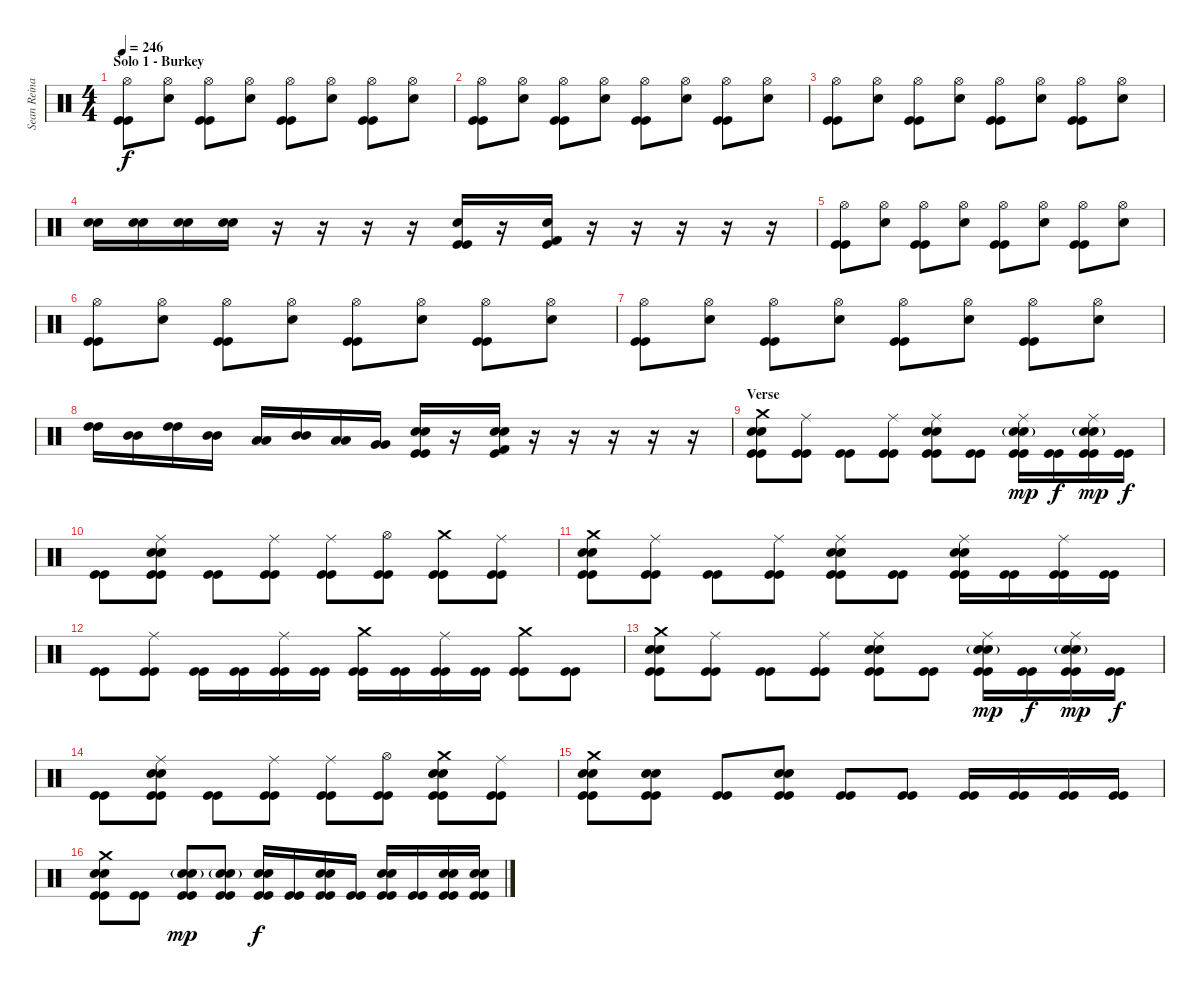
\track ("Sean Reinart" "Sean Reina") {instrument percussion}
\staff {score}
\articulation defaults
\ts (4 4)
\section ("" "Solo 1 - Burkey")
\tempo 246
\clef neutral
\ks c
("Hi-Hat (open)" "Kick (hit)" "Kick (hit)").8{dy f} ("Hi-Hat (open)" "Snare (hit) 2").8 ("Hi-Hat (open)" "Kick (hit)" "Kick (hit)").8 ("Hi-Hat (open)" "Snare (hit) 2").8 ("Hi-Hat (open)" "Kick (hit)" "Kick (hit)").8 ("Hi-Hat (open)" "Snare (hit) 2").8 ("Hi-Hat (open)" "Kick (hit)" "Kick (hit)").8 ("Hi-Hat (open)" "Snare (hit) 2").8 |
("Hi-Hat (open)" "Kick (hit)" "Kick (hit)").8 ("Hi-Hat (open)" "Snare (hit) 2").8 ("Hi-Hat (open)" "Kick (hit)" "Kick (hit)").8 ("Hi-Hat (open)" "Snare (hit) 2").8 ("Hi-Hat (open)" "Kick (hit)" "Kick (hit)").8 ("Hi-Hat (open)" "Snare (hit) 2").8 ("Hi-Hat (open)" "Kick (hit)" "Kick (hit)").8 ("Hi-Hat (open)" "Snare (hit) 2").8 |
("Hi-Hat (open)" "Kick (hit)" "Kick (hit)").8 ("Hi-Hat (open)" "Snare (hit) 2").8 ("Hi-Hat (open)" "Kick (hit)" "Kick (hit)").8 ("Hi-Hat (open)" "Snare (hit) 2").8 ("Hi-Hat (open)" "Kick (hit)" "Kick (hit)").8 ("Hi-Hat (open)" "Snare (hit) 2").8 ("Hi-Hat (open)" "Kick (hit)" "Kick (hit)").8 ("Hi-Hat (open)" "Snare (hit) 2").8 |
("Snare (hit) 2" "Electric Snare (hit)").16 ("Snare (hit) 2" "Electric Snare (hit)").16 ("Snare (hit) 2" "Electric Snare (hit)").16 ("Snare (hit) 2" "Electric Snare (hit)").16 r.16 r.16 r.16 r.16 ("Snare (hit) 2" "Kick (hit)" "Kick (hit)").16 r.16 ("Snare (hit) 2" "Kick (hit)" "Kick (hit) 2").16 r.16 r.16 r.16 r.16 r.16 |
("Hi-Hat (open)" "Kick (hit)" "Kick (hit)").8 ("Hi-Hat (open)" "Snare (hit) 2").8 ("Hi-Hat (open)" "Kick (hit)" "Kick (hit)").8 ("Hi-Hat (open)" "Snare (hit) 2").8 ("Hi-Hat (open)" "Kick (hit)" "Kick (hit)").8 ("Hi-Hat (open)" "Snare (hit) 2").8 ("Hi-Hat (open)" "Kick (hit)" "Kick (hit)").8 ("Hi-Hat (open)" "Snare (hit) 2").8 |
("Hi-Hat (open)" "Kick (hit)" "Kick (hit)").8 ("Hi-Hat (open)" "Snare (hit) 2").8 ("Hi-Hat (open)" "Kick (hit)" "Kick (hit)").8 ("Hi-Hat (open)" "Snare (hit) 2").8 ("Hi-Hat (open)" "Kick (hit)" "Kick (hit)").8 ("Hi-Hat (open)" "Snare (hit) 2").8 ("Hi-Hat (open)" "Kick (hit)" "Kick (hit)").8 ("Hi-Hat (open)" "Snare (hit) 2").8 |
("Hi-Hat (open)" "Kick (hit)" "Kick (hit)").8 ("Hi-Hat (open)" "Snare (hit) 2").8 ("Hi-Hat (open)" "Kick (hit)" "Kick (hit)").8 ("Hi-Hat (open)" "Snare (hit) 2").8 ("Hi-Hat (open)" "Kick (hit)" "Kick (hit)").8 ("Hi-Hat (open)" "Snare (hit) 2").8 ("Hi-Hat (open)" "Kick (hit)" "Kick (hit)").8 ("Hi-Hat (open)" "Snare (hit) 2").8 |
("High Tom (hit)" "High Tom (hit)").16 ("Mid Tom (hit)" "Mid Tom (hit)").16 ("High Tom (hit)" "High Tom (hit)").16 ("Mid Tom (hit)" "Mid Tom (hit)").16 ("Low Tom (hit)" "Low Tom (hit)").16 ("Mid Tom (hit)" "Mid Tom (hit)").16 ("Low Tom (hit)" "Low Tom (hit)").16 ("Very Low Tom (hit)" "Very Low Tom (hit)").16 ("Snare (hit) 2" "Electric Snare (hit)" "Kick (hit)" "Kick (hit)").16 r.16 ("Snare (hit) 2" "Electric Snare (hit)" "Kick (hit)" "Kick (hit) 2").16 r.16 r.16 r.16 r.16 r.16 |
\section ("" "Verse")
("Crash medium (hit)" "Snare (hit) 2" "Electric Snare (hit)" "Kick (hit)" "Kick (hit)").8 ("Ride (middle)" "Kick (hit)" "Kick (hit)").8 ("Kick (hit)" "Kick (hit)").8 ("Ride (middle)" "Kick (hit)" "Kick (hit)").8 ("Ride (middle)" "Snare (hit) 2" "Electric Snare (hit)" "Kick (hit)" "Kick (hit)").8 ("Kick (hit)" "Kick (hit)").8 ("Ride (middle)" "Snare (hit) 2"{g} "Electric Snare (hit)"{g} "Kick (hit)" "Kick (hit)").16{dy mp} ("Kick (hit)" "Kick (hit)").16{dy f} ("Ride (middle)" "Snare (hit) 2"{g} "Electric Snare (hit)"{g} "Kick (hit)" "Kick (hit)").16{dy mp} ("Kick (hit)" "Kick (hit)").16{dy f} |
("Kick (hit)" "Kick (hit)").8 ("Ride (middle)" "Electric Snare (hit)" "Snare (hit) 2" "Kick (hit)" "Kick (hit)").8 ("Kick (hit)" "Kick (hit)").8 ("Ride (middle)" "Kick (hit)" "Kick (hit)").8 ("Ride (middle)" "Kick (hit)" "Kick (hit)").8 ("Hi-Hat (open)" "Kick (hit)" "Kick (hit)").8 ("Crash medium (hit)" "Kick (hit)" "Kick (hit)").8 ("Ride (middle)" "Kick (hit)" "Kick (hit)").8 |
("Crash medium (hit)" "Snare (hit) 2" "Electric Snare (hit)" "Kick (hit)" "Kick (hit)").8 ("Ride (middle)" "Kick (hit)" "Kick (hit)").8 ("Kick (hit)" "Kick (hit)").8 ("Ride (middle)" "Kick (hit)" "Kick (hit)").8 ("Ride (middle)" "Snare (hit) 2" "Electric Snare (hit)" "Kick (hit)" "Kick (hit)").8 ("Kick (hit)" "Kick (hit)").8 ("Ride (middle)" "Snare (hit) 2" "Electric Snare (hit)" "Kick (hit)" "Kick (hit)").16 ("Kick (hit)" "Kick (hit)").16 ("Ride (middle)" "Kick (hit)" "Kick (hit)").16 ("Kick (hit)" "Kick (hit)").16 |
("Kick (hit)" "Kick (hit)").8 ("Ride (middle)" "Kick (hit)" "Kick (hit)").8 ("Kick (hit)" "Kick (hit)").16 ("Kick (hit)" "Kick (hit)").16 ("Ride (middle)" "Kick (hit)" "Kick (hit)").16 ("Kick (hit)" "Kick (hit)").16 ("Crash medium (hit)" "Kick (hit)" "Kick (hit)").16 ("Kick (hit)" "Kick (hit)").16 ("Ride (middle)" "Kick (hit)" "Kick (hit)").16 ("Kick (hit)" "Kick (hit)").16 ("Crash medium (hit)" "Kick (hit)" "Kick (hit)").8 ("Kick (hit)" "Kick (hit)").8 |
("Crash medium (hit)" "Snare (hit) 2" "Electric Snare (hit)" "Kick (hit)" "Kick (hit)").8 ("Ride (middle)" "Kick (hit)" "Kick (hit)").8 ("Kick (hit)" "Kick (hit)").8 ("Ride (middle)" "Kick (hit)" "Kick (hit)").8 ("Ride (middle)" "Snare (hit) 2" "Electric Snare (hit)" "Kick (hit)" "Kick (hit)").8 ("Kick (hit)" "Kick (hit)").8 ("Ride (middle)" "Snare (hit) 2"{g} "Electric Snare (hit)"{g} "Kick (hit)" "Kick (hit)").16{dy mp} ("Kick (hit)" "Kick (hit)").16{dy f} ("Ride (middle)" "Snare (hit) 2"{g} "Electric Snare (hit)"{g} "Kick (hit)" "Kick (hit)").16{dy mp} ("Kick (hit)" "Kick (hit)").16{dy f} |
("Kick (hit)" "Kick (hit)").8 ("Ride (middle)" "Electric Snare (hit)" "Snare (hit) 2" "Kick (hit)" "Kick (hit)").8 ("Kick (hit)" "Kick (hit)").8 ("Ride (middle)" "Kick (hit)" "Kick (hit)").8 ("Ride (middle)" "Kick (hit)" "Kick (hit)").8 ("Hi-Hat (open)" "Kick (hit)" "Kick (hit)").8 ("Crash medium (hit)" "Snare (hit) 2" "Electric Snare (hit)" "Kick (hit)" "Kick (hit)").8 ("Ride (middle)" "Kick (hit)" "Kick (hit)").8 |
("Crash medium (hit)" "Snare (hit) 2" "Electric Snare (hit)" "Kick (hit)" "Kick (hit)").8 ("Electric Snare (hit)" "Snare (hit) 2" "Kick (hit)" "Kick (hit)").8 ("Kick (hit)" "Kick (hit)").8 ("Electric Snare (hit)" "Snare (hit) 2" "Kick (hit)" "Kick (hit)").8 ("Kick (hit)" "Kick (hit)").8 ("Kick (hit)" "Kick (hit)").8 ("Kick (hit)" "Kick (hit)").16 ("Kick (hit)" "Kick (hit)").16 ("Kick (hit)" "Kick (hit)").16 ("Kick (hit)" "Kick (hit)").16 |
("Crash medium (hit)" "Snare (hit) 2" "Electric Snare (hit)" "Kick (hit)" "Kick (hit)").8 ("Kick (hit)" "Kick (hit)").8 ("Snare (hit) 2"{g} "Electric Snare (hit)"{g} "Kick (hit)" "Kick (hit)").8{dy mp} ("Electric Snare (hit)"{g} "Snare (hit) 2"{g} "Kick (hit)" "Kick (hit)").8 ("Snare (hit) 2" "Electric Snare (hit)" "Kick (hit)" "Kick (hit)").16{dy f} ("Kick (hit)" "Kick (hit)").16 ("Electric Snare (hit)" "Snare (hit) 2" "Kick (hit)" "Kick (hit)").16 ("Kick (hit)" "Kick (hit)").16 ("Snare (hit) 2" "Electric Snare (hit)" "Kick (hit)" "Kick (hit)").16 ("Kick (hit)" "Kick (hit)").16 ("Snare (hit) 2" "Electric Snare (hit)" "Kick (hit)" "Kick (hit)").16 ("Snare (hit) 2" "Electric Snare (hit)" "Kick (hit)" "Kick (hit)").16
